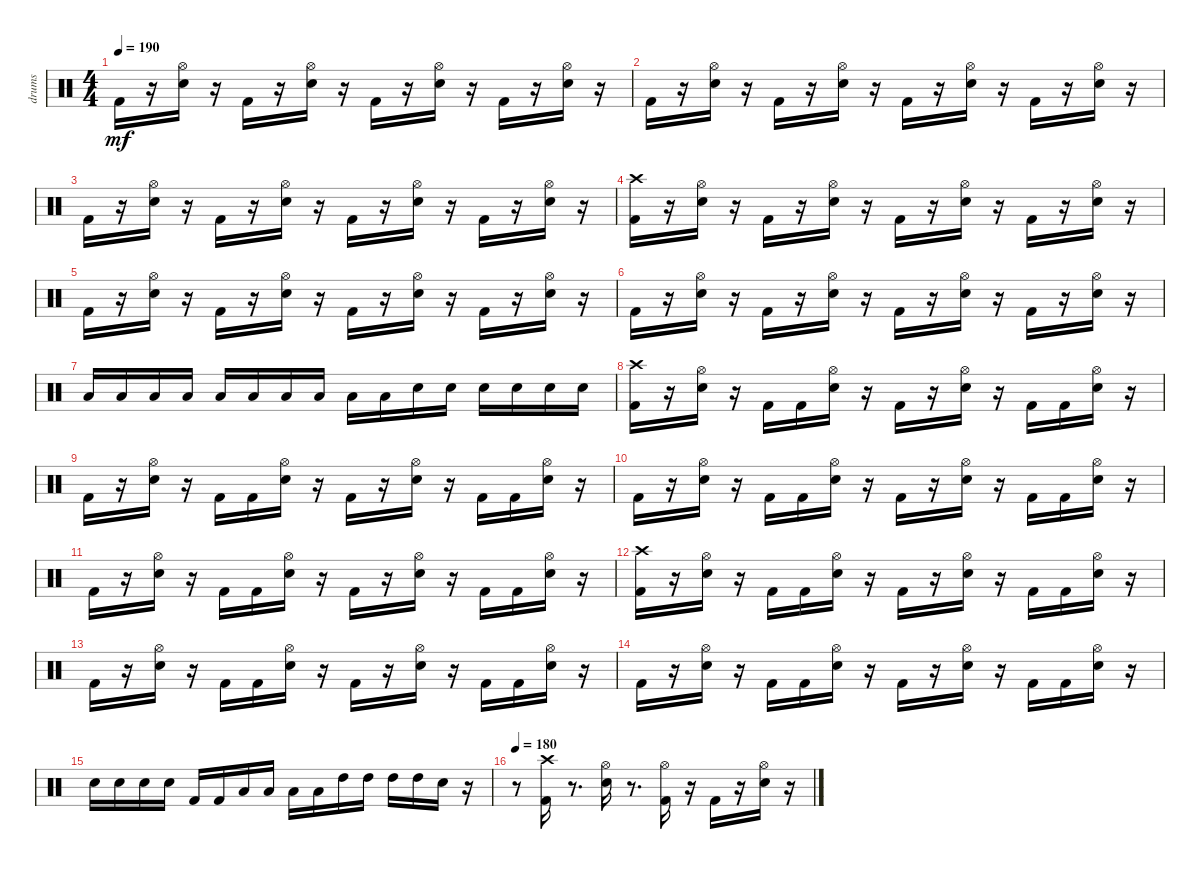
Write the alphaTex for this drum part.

\track ("drums               " "drums     ") {instrument percussion}
\staff {score}
\articulation defaults
\ts (4 4)
\tempo 190
\clef neutral
\ks c "Kick (hit) 2".16{dy mf}
r.16 ("Snare (hit) 2" "Hi-Hat (open)").16 r.16 "Kick (hit) 2".16 r.16 ("Snare (hit) 2" "Hi-Hat (open)").16 r.16 "Kick (hit) 2".16 r.16 ("Snare (hit) 2" "Hi-Hat (open)").16 r.16 "Kick (hit) 2".16 r.16 ("Snare (hit) 2" "Hi-Hat (open)").16 r.16 |
"Kick (hit) 2".16 r.16 ("Snare (hit) 2" "Hi-Hat (open)").16 r.16 "Kick (hit) 2".16 r.16 ("Snare (hit) 2" "Hi-Hat (open)").16 r.16 "Kick (hit) 2".16 r.16 ("Snare (hit) 2" "Hi-Hat (open)").16 r.16 "Kick (hit) 2".16 r.16 ("Snare (hit) 2" "Hi-Hat (open)").16 r.16 |
"Kick (hit) 2".16 r.16 ("Snare (hit) 2" "Hi-Hat (open)").16 r.16 "Kick (hit) 2".16 r.16 ("Snare (hit) 2" "Hi-Hat (open)").16 r.16 "Kick (hit) 2".16 r.16 ("Snare (hit) 2" "Hi-Hat (open)").16 r.16 "Kick (hit) 2".16 r.16 ("Snare (hit) 2" "Hi-Hat (open)").16 r.16 |
("Kick (hit) 2" "Crash high (hit)").16 r.16 ("Snare (hit) 2" "Hi-Hat (open)").16 r.16 "Kick (hit) 2".16 r.16 ("Snare (hit) 2" "Hi-Hat (open)").16 r.16 "Kick (hit) 2".16 r.16 ("Snare (hit) 2" "Hi-Hat (open)").16 r.16 "Kick (hit) 2".16 r.16 ("Snare (hit) 2" "Hi-Hat (open)").16 r.16 |
"Kick (hit) 2".16 r.16 ("Snare (hit) 2" "Hi-Hat (open)").16 r.16 "Kick (hit) 2".16 r.16 ("Snare (hit) 2" "Hi-Hat (open)").16 r.16 "Kick (hit) 2".16 r.16 ("Snare (hit) 2" "Hi-Hat (open)").16 r.16 "Kick (hit) 2".16 r.16 ("Snare (hit) 2" "Hi-Hat (open)").16 r.16 |
"Kick (hit) 2".16 r.16 ("Snare (hit) 2" "Hi-Hat (open)").16 r.16 "Kick (hit) 2".16 r.16 ("Snare (hit) 2" "Hi-Hat (open)").16 r.16 "Kick (hit) 2".16 r.16 ("Snare (hit) 2" "Hi-Hat (open)").16 r.16 "Kick (hit) 2".16 r.16 ("Snare (hit) 2" "Hi-Hat (open)").16 r.16 |
"Low Tom (hit)".16 "Low Tom (hit)".16 "Low Tom (hit)".16 "Low Floor Tom (hit)".16 "Low Floor Tom (hit)".16 "Low Floor Tom (hit)".16 "Low Tom (hit)".16 "Low Tom (hit)".16 "Low Tom (hit)".16 "Low Tom (hit)".16 "Snare (hit) 2".16 "Snare (hit) 2".16 "Snare (hit) 2".16 "Snare (hit) 2".16 "Snare (hit) 2".16 "Snare (hit) 2".16 |
("Kick (hit) 2" "Crash high (hit)").16 r.16 ("Snare (hit) 2" "Hi-Hat (open)").16 r.16 "Kick (hit) 2".16 "Kick (hit) 2".16 ("Snare (hit) 2" "Hi-Hat (open)").16 r.16 "Kick (hit) 2".16 r.16 ("Snare (hit) 2" "Hi-Hat (open)").16 r.16 "Kick (hit) 2".16 "Kick (hit) 2".16 ("Snare (hit) 2" "Hi-Hat (open)").16 r.16 |
"Kick (hit) 2".16 r.16 ("Snare (hit) 2" "Hi-Hat (open)").16 r.16 "Kick (hit) 2".16 "Kick (hit) 2".16 ("Snare (hit) 2" "Hi-Hat (open)").16 r.16 "Kick (hit) 2".16 r.16 ("Snare (hit) 2" "Hi-Hat (open)").16 r.16 "Kick (hit) 2".16 "Kick (hit) 2".16 ("Snare (hit) 2" "Hi-Hat (open)").16 r.16 |
"Kick (hit) 2".16 r.16 ("Snare (hit) 2" "Hi-Hat (open)").16 r.16 "Kick (hit) 2".16 "Kick (hit) 2".16 ("Snare (hit) 2" "Hi-Hat (open)").16 r.16 "Kick (hit) 2".16 r.16 ("Snare (hit) 2" "Hi-Hat (open)").16 r.16 "Kick (hit) 2".16 "Kick (hit) 2".16 ("Snare (hit) 2" "Hi-Hat (open)").16 r.16 |
"Kick (hit) 2".16 r.16 ("Snare (hit) 2" "Hi-Hat (open)").16 r.16 "Kick (hit) 2".16 "Kick (hit) 2".16 ("Snare (hit) 2" "Hi-Hat (open)").16 r.16 "Kick (hit) 2".16 r.16 ("Snare (hit) 2" "Hi-Hat (open)").16 r.16 "Kick (hit) 2".16 "Kick (hit) 2".16 ("Snare (hit) 2" "Hi-Hat (open)").16 r.16 |
("Kick (hit) 2" "Crash high (hit)").16 r.16 ("Snare (hit) 2" "Hi-Hat (open)").16 r.16 "Kick (hit) 2".16 "Kick (hit) 2".16 ("Snare (hit) 2" "Hi-Hat (open)").16 r.16 "Kick (hit) 2".16 r.16 ("Snare (hit) 2" "Hi-Hat (open)").16 r.16 "Kick (hit) 2".16 "Kick (hit) 2".16 ("Snare (hit) 2" "Hi-Hat (open)").16 r.16 |
"Kick (hit) 2".16 r.16 ("Snare (hit) 2" "Hi-Hat (open)").16 r.16 "Kick (hit) 2".16 "Kick (hit) 2".16 ("Snare (hit) 2" "Hi-Hat (open)").16 r.16 "Kick (hit) 2".16 r.16 ("Snare (hit) 2" "Hi-Hat (open)").16 r.16 "Kick (hit) 2".16 "Kick (hit) 2".16 ("Snare (hit) 2" "Hi-Hat (open)").16 r.16 |
"Kick (hit) 2".16 r.16 ("Snare (hit) 2" "Hi-Hat (open)").16 r.16 "Kick (hit) 2".16 "Kick (hit) 2".16 ("Snare (hit) 2" "Hi-Hat (open)").16 r.16 "Kick (hit) 2".16 r.16 ("Snare (hit) 2" "Hi-Hat (open)").16 r.16 "Kick (hit) 2".16 "Kick (hit) 2".16 ("Snare (hit) 2" "Hi-Hat (open)").16 r.16 |
"Snare (hit) 2".16 "Snare (hit) 2".16 "Snare (hit) 2".16 "Snare (hit) 2".16 "Kick (hit) 2".16 "Kick (hit) 2".16 "Low Floor Tom (hit)".16 "Low Floor Tom (hit)".16 "Low Tom (hit)".16 "Low Tom (hit)".16 "High Tom (hit)".16 "High Tom (hit)".16 "High Tom (hit)".16 "High Tom (hit)".16 "Snare (hit) 2".16 r.16 |
\tempo 180
r.8 ("Crash high (hit)" "Kick (hit) 2").16 r.8{d} ("Hi-Hat (open)" "Snare (hit) 2").16 r.8{d} ("Hi-Hat (open)" "Kick (hit) 2").16 r.16 "Kick (hit) 2".16 r.16 ("Hi-Hat (open)" "Snare (hit) 2").16 r.16
